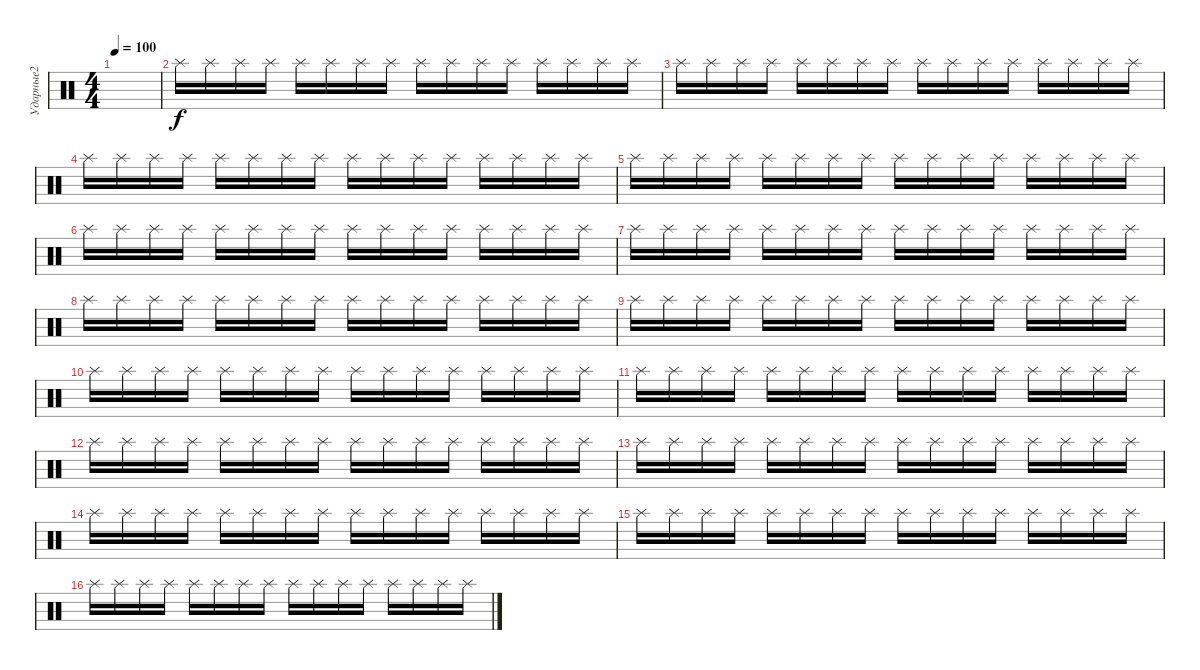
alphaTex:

\track ("Ударные2" "Ударные2") {instrument percussion}
\staff {score}
\articulation defaults
\ts (4 4)
\tempo 100
\clef neutral
\ks c
|
"Splash (hit)".16 "Splash (hit)".16 "Splash (hit)".16 "Splash (hit)".16 "Splash (hit)".16 "Splash (hit)".16 "Splash (hit)".16 "Splash (hit)".16 "Splash (hit)".16 "Splash (hit)".16 "Splash (hit)".16 "Splash (hit)".16 "Splash (hit)".16 "Splash (hit)".16 "Splash (hit)".16 "Splash (hit)".16 |
"Splash (hit)".16 "Splash (hit)".16 "Splash (hit)".16 "Splash (hit)".16 "Splash (hit)".16 "Splash (hit)".16 "Splash (hit)".16 "Splash (hit)".16 "Splash (hit)".16 "Splash (hit)".16 "Splash (hit)".16 "Splash (hit)".16 "Splash (hit)".16 "Splash (hit)".16 "Splash (hit)".16 "Splash (hit)".16 |
"Splash (hit)".16 "Splash (hit)".16 "Splash (hit)".16 "Splash (hit)".16 "Splash (hit)".16 "Splash (hit)".16 "Splash (hit)".16 "Splash (hit)".16 "Splash (hit)".16 "Splash (hit)".16 "Splash (hit)".16 "Splash (hit)".16 "Splash (hit)".16 "Splash (hit)".16 "Splash (hit)".16 "Splash (hit)".16 |
"Splash (hit)".16 "Splash (hit)".16 "Splash (hit)".16 "Splash (hit)".16 "Splash (hit)".16 "Splash (hit)".16 "Splash (hit)".16 "Splash (hit)".16 "Splash (hit)".16 "Splash (hit)".16 "Splash (hit)".16 "Splash (hit)".16 "Splash (hit)".16 "Splash (hit)".16 "Splash (hit)".16 "Splash (hit)".16 |
"Splash (hit)".16 "Splash (hit)".16 "Splash (hit)".16 "Splash (hit)".16 "Splash (hit)".16 "Splash (hit)".16 "Splash (hit)".16 "Splash (hit)".16 "Splash (hit)".16 "Splash (hit)".16 "Splash (hit)".16 "Splash (hit)".16 "Splash (hit)".16 "Splash (hit)".16 "Splash (hit)".16 "Splash (hit)".16 |
"Splash (hit)".16 "Splash (hit)".16 "Splash (hit)".16 "Splash (hit)".16 "Splash (hit)".16 "Splash (hit)".16 "Splash (hit)".16 "Splash (hit)".16 "Splash (hit)".16 "Splash (hit)".16 "Splash (hit)".16 "Splash (hit)".16 "Splash (hit)".16 "Splash (hit)".16 "Splash (hit)".16 "Splash (hit)".16 |
"Splash (hit)".16 "Splash (hit)".16 "Splash (hit)".16 "Splash (hit)".16 "Splash (hit)".16 "Splash (hit)".16 "Splash (hit)".16 "Splash (hit)".16 "Splash (hit)".16 "Splash (hit)".16 "Splash (hit)".16 "Splash (hit)".16 "Splash (hit)".16 "Splash (hit)".16 "Splash (hit)".16 "Splash (hit)".16 |
"Splash (hit)".16 "Splash (hit)".16 "Splash (hit)".16 "Splash (hit)".16 "Splash (hit)".16 "Splash (hit)".16 "Splash (hit)".16 "Splash (hit)".16 "Splash (hit)".16 "Splash (hit)".16 "Splash (hit)".16 "Splash (hit)".16 "Splash (hit)".16 "Splash (hit)".16 "Splash (hit)".16 "Splash (hit)".16 |
"Splash (hit)".16 "Splash (hit)".16 "Splash (hit)".16 "Splash (hit)".16 "Splash (hit)".16 "Splash (hit)".16 "Splash (hit)".16 "Splash (hit)".16 "Splash (hit)".16 "Splash (hit)".16 "Splash (hit)".16 "Splash (hit)".16 "Splash (hit)".16 "Splash (hit)".16 "Splash (hit)".16 "Splash (hit)".16 |
"Splash (hit)".16 "Splash (hit)".16 "Splash (hit)".16 "Splash (hit)".16 "Splash (hit)".16 "Splash (hit)".16 "Splash (hit)".16 "Splash (hit)".16 "Splash (hit)".16 "Splash (hit)".16 "Splash (hit)".16 "Splash (hit)".16 "Splash (hit)".16 "Splash (hit)".16 "Splash (hit)".16 "Splash (hit)".16 |
"Splash (hit)".16 "Splash (hit)".16 "Splash (hit)".16 "Splash (hit)".16 "Splash (hit)".16 "Splash (hit)".16 "Splash (hit)".16 "Splash (hit)".16 "Splash (hit)".16 "Splash (hit)".16 "Splash (hit)".16 "Splash (hit)".16 "Splash (hit)".16 "Splash (hit)".16 "Splash (hit)".16 "Splash (hit)".16 |
"Splash (hit)".16 "Splash (hit)".16 "Splash (hit)".16 "Splash (hit)".16 "Splash (hit)".16 "Splash (hit)".16 "Splash (hit)".16 "Splash (hit)".16 "Splash (hit)".16 "Splash (hit)".16 "Splash (hit)".16 "Splash (hit)".16 "Splash (hit)".16 "Splash (hit)".16 "Splash (hit)".16 "Splash (hit)".16 |
"Splash (hit)".16 "Splash (hit)".16 "Splash (hit)".16 "Splash (hit)".16 "Splash (hit)".16 "Splash (hit)".16 "Splash (hit)".16 "Splash (hit)".16 "Splash (hit)".16 "Splash (hit)".16 "Splash (hit)".16 "Splash (hit)".16 "Splash (hit)".16 "Splash (hit)".16 "Splash (hit)".16 "Splash (hit)".16 |
"Splash (hit)".16 "Splash (hit)".16 "Splash (hit)".16 "Splash (hit)".16 "Splash (hit)".16 "Splash (hit)".16 "Splash (hit)".16 "Splash (hit)".16 "Splash (hit)".16 "Splash (hit)".16 "Splash (hit)".16 "Splash (hit)".16 "Splash (hit)".16 "Splash (hit)".16 "Splash (hit)".16 "Splash (hit)".16 |
"Splash (hit)".16 "Splash (hit)".16 "Splash (hit)".16 "Splash (hit)".16 "Splash (hit)".16 "Splash (hit)".16 "Splash (hit)".16 "Splash (hit)".16 "Splash (hit)".16 "Splash (hit)".16 "Splash (hit)".16 "Splash (hit)".16 "Splash (hit)".16 "Splash (hit)".16 "Splash (hit)".16 "Splash (hit)".16
